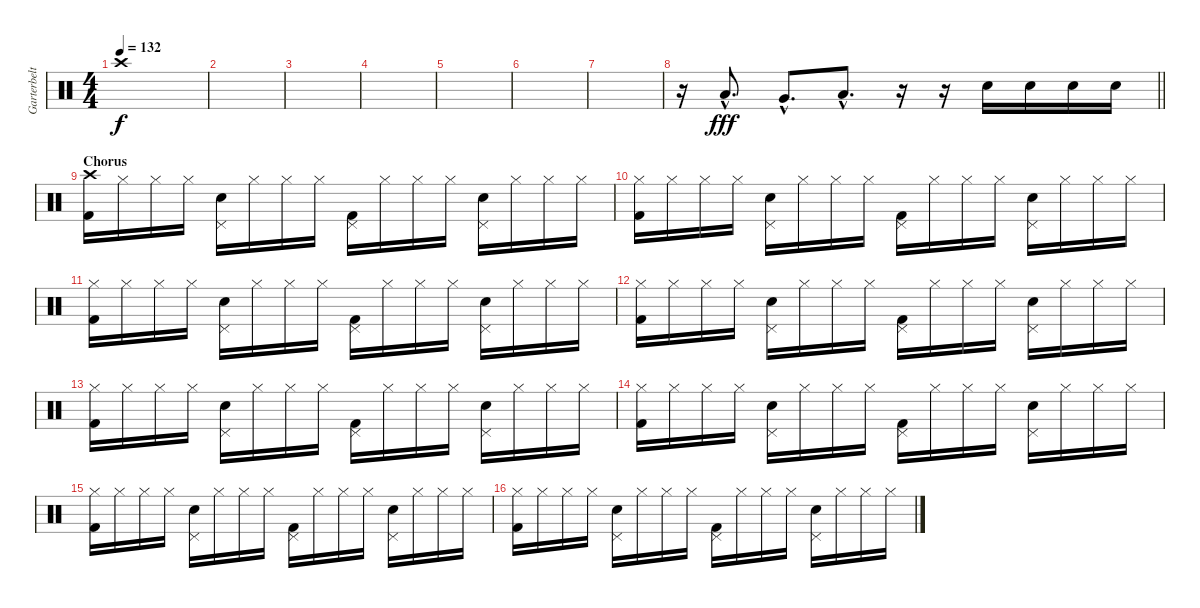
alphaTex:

\track ("Garterbelt" "Garterbelt") {instrument percussion}
\staff {score}
\articulation defaults
\ts (4 4)
\tempo 132
\clef neutral
\ks c "Crash high (hit)".1{dy f}
|
|
|
|
|
|
|
\barLineRight lightlight
r.16 "Low Tom (hit)"{hac}.8{d dy fff} "Very Low Tom (hit)"{hac}.8{d} "Low Floor Tom (hit)"{hac}.8{d} r.16 r.16 "Hand Clap (hit)".16 "Hand Clap (hit)".16 "Hand Clap (hit)".16 "Hand Clap (hit)".16 |
\section ("" "Chorus")
("Crash high (hit)" "Kick (hit) 2").16 "Hi-Hat (closed)".16 "Hi-Hat (closed)".16 "Hi-Hat (closed)".16 ("Pedal Hi-Hat (hit)" "Hand Clap (hit)").16 "Hi-Hat (closed)".16 "Hi-Hat (closed)".16 "Hi-Hat (closed)".16 ("Pedal Hi-Hat (hit)" "Kick (hit) 2").16 "Hi-Hat (closed)".16 "Hi-Hat (closed)".16 "Hi-Hat (closed)".16 ("Pedal Hi-Hat (hit)" "Hand Clap (hit)").16 "Hi-Hat (closed)".16 "Hi-Hat (closed)".16 "Hi-Hat (closed)".16 |
("Hi-Hat (closed)" "Kick (hit) 2").16 "Hi-Hat (closed)".16 "Hi-Hat (closed)".16 "Hi-Hat (closed)".16 ("Pedal Hi-Hat (hit)" "Hand Clap (hit)").16 "Hi-Hat (closed)".16 "Hi-Hat (closed)".16 "Hi-Hat (closed)".16 ("Pedal Hi-Hat (hit)" "Kick (hit) 2").16 "Hi-Hat (closed)".16 "Hi-Hat (closed)".16 "Hi-Hat (closed)".16 ("Pedal Hi-Hat (hit)" "Hand Clap (hit)").16 "Hi-Hat (closed)".16 "Hi-Hat (closed)".16 "Hi-Hat (closed)".16 |
("Hi-Hat (closed)" "Kick (hit) 2").16 "Hi-Hat (closed)".16 "Hi-Hat (closed)".16 "Hi-Hat (closed)".16 ("Pedal Hi-Hat (hit)" "Hand Clap (hit)").16 "Hi-Hat (closed)".16 "Hi-Hat (closed)".16 "Hi-Hat (closed)".16 ("Pedal Hi-Hat (hit)" "Kick (hit) 2").16 "Hi-Hat (closed)".16 "Hi-Hat (closed)".16 "Hi-Hat (closed)".16 ("Pedal Hi-Hat (hit)" "Hand Clap (hit)").16 "Hi-Hat (closed)".16 "Hi-Hat (closed)".16 "Hi-Hat (closed)".16 |
("Hi-Hat (closed)" "Kick (hit) 2").16 "Hi-Hat (closed)".16 "Hi-Hat (closed)".16 "Hi-Hat (closed)".16 ("Pedal Hi-Hat (hit)" "Hand Clap (hit)").16 "Hi-Hat (closed)".16 "Hi-Hat (closed)".16 "Hi-Hat (closed)".16 ("Pedal Hi-Hat (hit)" "Kick (hit) 2").16 "Hi-Hat (closed)".16 "Hi-Hat (closed)".16 "Hi-Hat (closed)".16 ("Pedal Hi-Hat (hit)" "Hand Clap (hit)").16 "Hi-Hat (closed)".16 "Hi-Hat (closed)".16 "Hi-Hat (closed)".16 |
("Hi-Hat (closed)" "Kick (hit) 2").16 "Hi-Hat (closed)".16 "Hi-Hat (closed)".16 "Hi-Hat (closed)".16 ("Pedal Hi-Hat (hit)" "Hand Clap (hit)").16 "Hi-Hat (closed)".16 "Hi-Hat (closed)".16 "Hi-Hat (closed)".16 ("Pedal Hi-Hat (hit)" "Kick (hit) 2").16 "Hi-Hat (closed)".16 "Hi-Hat (closed)".16 "Hi-Hat (closed)".16 ("Pedal Hi-Hat (hit)" "Hand Clap (hit)").16 "Hi-Hat (closed)".16 "Hi-Hat (closed)".16 "Hi-Hat (closed)".16 |
("Hi-Hat (closed)" "Kick (hit) 2").16 "Hi-Hat (closed)".16 "Hi-Hat (closed)".16 "Hi-Hat (closed)".16 ("Pedal Hi-Hat (hit)" "Hand Clap (hit)").16 "Hi-Hat (closed)".16 "Hi-Hat (closed)".16 "Hi-Hat (closed)".16 ("Pedal Hi-Hat (hit)" "Kick (hit) 2").16 "Hi-Hat (closed)".16 "Hi-Hat (closed)".16 "Hi-Hat (closed)".16 ("Pedal Hi-Hat (hit)" "Hand Clap (hit)").16 "Hi-Hat (closed)".16 "Hi-Hat (closed)".16 "Hi-Hat (closed)".16 |
("Hi-Hat (closed)" "Kick (hit) 2").16 "Hi-Hat (closed)".16 "Hi-Hat (closed)".16 "Hi-Hat (closed)".16 ("Pedal Hi-Hat (hit)" "Hand Clap (hit)").16 "Hi-Hat (closed)".16 "Hi-Hat (closed)".16 "Hi-Hat (closed)".16 ("Pedal Hi-Hat (hit)" "Kick (hit) 2").16 "Hi-Hat (closed)".16 "Hi-Hat (closed)".16 "Hi-Hat (closed)".16 ("Pedal Hi-Hat (hit)" "Hand Clap (hit)").16 "Hi-Hat (closed)".16 "Hi-Hat (closed)".16 "Hi-Hat (closed)".16 |
("Hi-Hat (closed)" "Kick (hit) 2").16 "Hi-Hat (closed)".16 "Hi-Hat (closed)".16 "Hi-Hat (closed)".16 ("Pedal Hi-Hat (hit)" "Hand Clap (hit)").16 "Hi-Hat (closed)".16 "Hi-Hat (closed)".16 "Hi-Hat (closed)".16 ("Pedal Hi-Hat (hit)" "Kick (hit) 2").16 "Hi-Hat (closed)".16 "Hi-Hat (closed)".16 "Hi-Hat (closed)".16 ("Pedal Hi-Hat (hit)" "Hand Clap (hit)").16 "Hi-Hat (closed)".16 "Hi-Hat (closed)".16 "Hi-Hat (closed)".16
